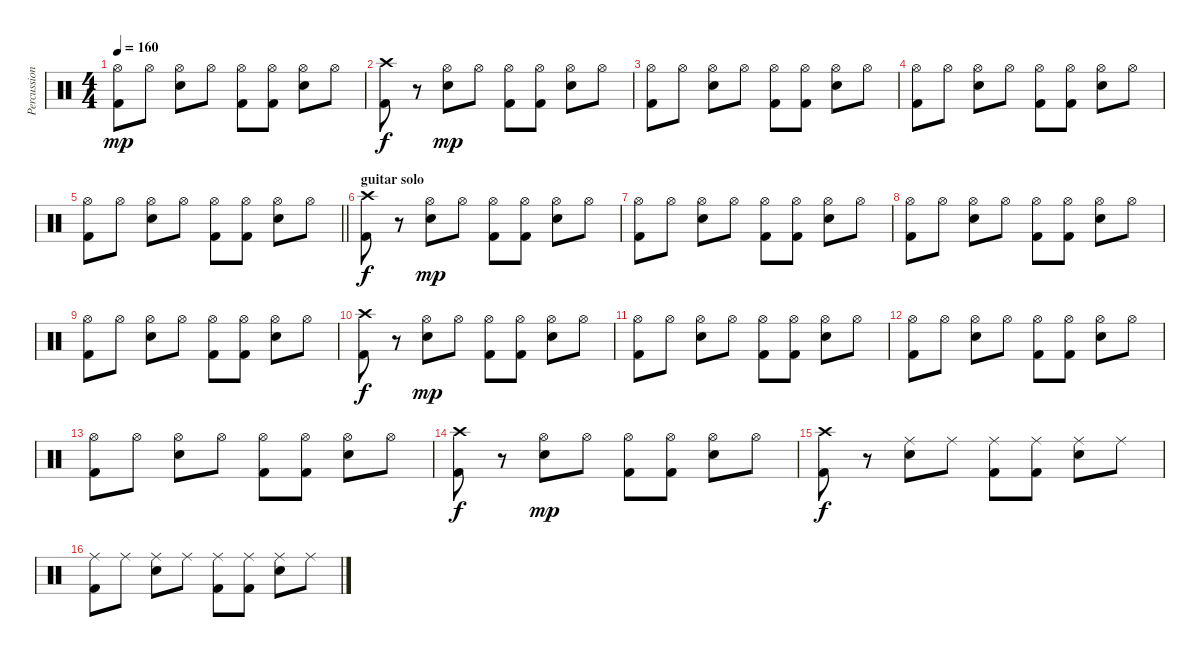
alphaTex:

\track ("Percussion - album" "Percussion") {mute instrument percussion}
\staff {score}
\articulation defaults
\ts (4 4)
\tempo 160
\clef neutral
\ks c
("Hi-Hat (open)" "Kick (hit) 2").8{dy mp} "Hi-Hat (open)".8 ("Hi-Hat (open)" "Snare (hit) 2").8 "Hi-Hat (open)".8 ("Hi-Hat (open)" "Kick (hit) 2").8 ("Hi-Hat (open)" "Kick (hit) 2").8 ("Hi-Hat (open)" "Snare (hit) 2").8 "Hi-Hat (open)".8 |
("Crash high (hit)" "Kick (hit) 2").8{dy f} r.8 ("Hi-Hat (open)" "Snare (hit) 2").8{dy mp} "Hi-Hat (open)".8 ("Hi-Hat (open)" "Kick (hit) 2").8 ("Hi-Hat (open)" "Kick (hit) 2").8 ("Hi-Hat (open)" "Snare (hit) 2").8 "Hi-Hat (open)".8 |
("Hi-Hat (open)" "Kick (hit) 2").8 "Hi-Hat (open)".8 ("Hi-Hat (open)" "Snare (hit) 2").8 "Hi-Hat (open)".8 ("Hi-Hat (open)" "Kick (hit) 2").8 ("Hi-Hat (open)" "Kick (hit) 2").8 ("Hi-Hat (open)" "Snare (hit) 2").8 "Hi-Hat (open)".8 |
("Hi-Hat (open)" "Kick (hit) 2").8 "Hi-Hat (open)".8 ("Hi-Hat (open)" "Snare (hit) 2").8 "Hi-Hat (open)".8 ("Hi-Hat (open)" "Kick (hit) 2").8 ("Hi-Hat (open)" "Kick (hit) 2").8 ("Hi-Hat (open)" "Snare (hit) 2").8 "Hi-Hat (open)".8 |
\barLineRight lightlight
("Hi-Hat (open)" "Kick (hit) 2").8 "Hi-Hat (open)".8 ("Hi-Hat (open)" "Snare (hit) 2").8 "Hi-Hat (open)".8 ("Hi-Hat (open)" "Kick (hit) 2").8 ("Hi-Hat (open)" "Kick (hit) 2").8 ("Hi-Hat (open)" "Snare (hit) 2").8 "Hi-Hat (open)".8 |
\section ("" "guitar solo")
("Crash high (hit)" "Kick (hit) 2").8{dy f} r.8 ("Hi-Hat (open)" "Snare (hit) 2").8{dy mp} "Hi-Hat (open)".8 ("Hi-Hat (open)" "Kick (hit) 2").8 ("Hi-Hat (open)" "Kick (hit) 2").8 ("Hi-Hat (open)" "Snare (hit) 2").8 "Hi-Hat (open)".8 |
("Hi-Hat (open)" "Kick (hit) 2").8 "Hi-Hat (open)".8 ("Hi-Hat (open)" "Snare (hit) 2").8 "Hi-Hat (open)".8 ("Hi-Hat (open)" "Kick (hit) 2").8 ("Hi-Hat (open)" "Kick (hit) 2").8 ("Hi-Hat (open)" "Snare (hit) 2").8 "Hi-Hat (open)".8 |
("Hi-Hat (open)" "Kick (hit) 2").8 "Hi-Hat (open)".8 ("Hi-Hat (open)" "Snare (hit) 2").8 "Hi-Hat (open)".8 ("Hi-Hat (open)" "Kick (hit) 2").8 ("Hi-Hat (open)" "Kick (hit) 2").8 ("Hi-Hat (open)" "Snare (hit) 2").8 "Hi-Hat (open)".8 |
("Hi-Hat (open)" "Kick (hit) 2").8 "Hi-Hat (open)".8 ("Hi-Hat (open)" "Snare (hit) 2").8 "Hi-Hat (open)".8 ("Hi-Hat (open)" "Kick (hit) 2").8 ("Hi-Hat (open)" "Kick (hit) 2").8 ("Hi-Hat (open)" "Snare (hit) 2").8 "Hi-Hat (open)".8 |
("Crash high (hit)" "Kick (hit) 2").8{dy f} r.8 ("Hi-Hat (open)" "Snare (hit) 2").8{dy mp} "Hi-Hat (open)".8 ("Hi-Hat (open)" "Kick (hit) 2").8 ("Hi-Hat (open)" "Kick (hit) 2").8 ("Hi-Hat (open)" "Snare (hit) 2").8 "Hi-Hat (open)".8 |
("Hi-Hat (open)" "Kick (hit) 2").8 "Hi-Hat (open)".8 ("Hi-Hat (open)" "Snare (hit) 2").8 "Hi-Hat (open)".8 ("Hi-Hat (open)" "Kick (hit) 2").8 ("Hi-Hat (open)" "Kick (hit) 2").8 ("Hi-Hat (open)" "Snare (hit) 2").8 "Hi-Hat (open)".8 |
("Hi-Hat (open)" "Kick (hit) 2").8 "Hi-Hat (open)".8 ("Hi-Hat (open)" "Snare (hit) 2").8 "Hi-Hat (open)".8 ("Hi-Hat (open)" "Kick (hit) 2").8 ("Hi-Hat (open)" "Kick (hit) 2").8 ("Hi-Hat (open)" "Snare (hit) 2").8 "Hi-Hat (open)".8 |
("Hi-Hat (open)" "Kick (hit) 2").8 "Hi-Hat (open)".8 ("Hi-Hat (open)" "Snare (hit) 2").8 "Hi-Hat (open)".8 ("Hi-Hat (open)" "Kick (hit) 2").8 ("Hi-Hat (open)" "Kick (hit) 2").8 ("Hi-Hat (open)" "Snare (hit) 2").8 "Hi-Hat (open)".8 |
("Crash high (hit)" "Kick (hit) 2").8{dy f} r.8 ("Hi-Hat (open)" "Snare (hit) 2").8{dy mp} "Hi-Hat (open)".8 ("Hi-Hat (open)" "Kick (hit) 2").8 ("Hi-Hat (open)" "Kick (hit) 2").8 ("Hi-Hat (open)" "Snare (hit) 2").8 "Hi-Hat (open)".8 |
("Crash high (hit)" "Kick (hit) 2").8{dy f} r.8 ("Ride (middle)" "Snare (hit) 2").8 "Ride (middle)".8 ("Ride (middle)" "Kick (hit) 2").8 ("Ride (middle)" "Kick (hit) 2").8 ("Ride (middle)" "Snare (hit) 2").8 "Ride (middle)".8 |
("Ride (middle)" "Kick (hit) 2").8 "Ride (middle)".8 ("Ride (middle)" "Snare (hit) 2").8 "Ride (middle)".8 ("Ride (middle)" "Kick (hit) 2").8 ("Ride (middle)" "Kick (hit) 2").8 ("Ride (middle)" "Snare (hit) 2").8 "Ride (middle)".8
